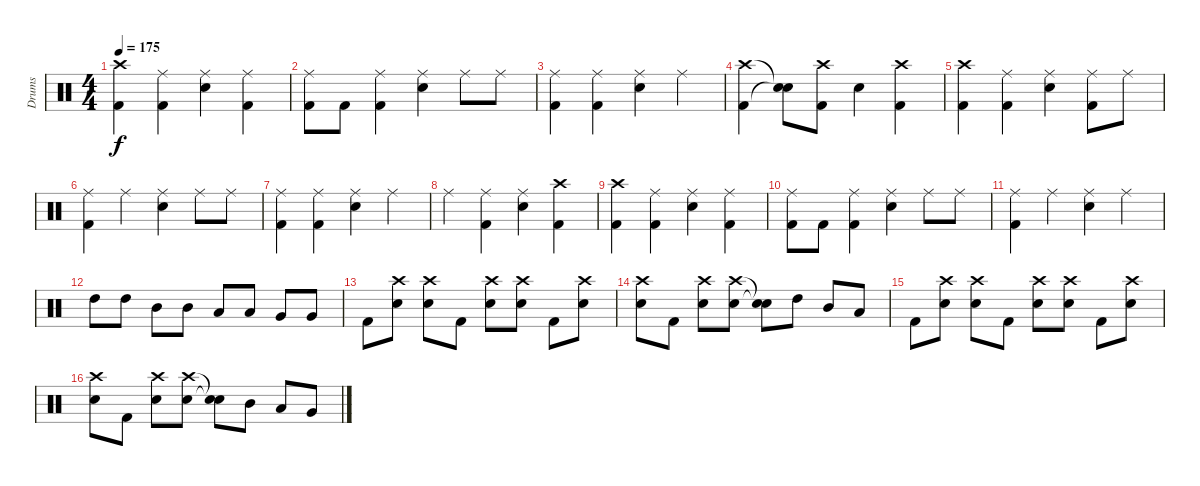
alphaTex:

\track ("Drums" "Drums") {mute instrument percussion}
\staff {score}
\articulation defaults
\ts (4 4)
\tempo 175
\clef neutral
\ks c
("Crash high (hit)" "Kick (hit) 2").4{dy f} ("Ride (middle)" "Kick (hit) 2").4 ("Ride (middle)" "Electric Snare (hit)").4 ("Ride (middle)" "Kick (hit) 2").4 |
("Ride (middle)" "Kick (hit) 2").8 "Kick (hit) 2".8 ("Ride (middle)" "Kick (hit) 2").4 ("Ride (middle)" "Electric Snare (hit)").4 "Ride (middle)".8 "Ride (middle)".8 |
("Ride (middle)" "Kick (hit) 2").4 ("Ride (middle)" "Kick (hit) 2").4 ("Ride (middle)" "Electric Snare (hit)").4 "Ride (middle)".4 |
("Crash high (hit)" "Kick (hit) 2").4 ("Snare (hit)"{t} "Snare (hit)"{t}).8 ("Crash high (hit)" "Kick (hit) 2").8 "Electric Snare (hit)".4 ("Crash high (hit)" "Kick (hit) 2").4 |
("Crash high (hit)" "Kick (hit) 2").4 ("Ride (middle)" "Kick (hit) 2").4 ("Ride (middle)" "Electric Snare (hit)").4 ("Ride (middle)" "Kick (hit) 2").8 "Ride (middle)".8 |
("Ride (middle)" "Kick (hit) 2").4 "Ride (middle)".4 ("Ride (middle)" "Electric Snare (hit)").4 "Ride (middle)".8 "Ride (middle)".8 |
("Ride (middle)" "Kick (hit) 2").4 ("Ride (middle)" "Kick (hit) 2").4 ("Ride (middle)" "Electric Snare (hit)").4 "Ride (middle)".4 |
"Ride (middle)".4 ("Ride (middle)" "Kick (hit) 2").4 ("Ride (middle)" "Electric Snare (hit)").4 ("Crash high (hit)" "Kick (hit) 2").4 |
("Crash high (hit)" "Kick (hit) 2").4 ("Ride (middle)" "Kick (hit) 2").4 ("Ride (middle)" "Electric Snare (hit)").4 ("Ride (middle)" "Kick (hit) 2").4 |
("Ride (middle)" "Kick (hit) 2").8 "Kick (hit) 2".8 ("Ride (middle)" "Kick (hit) 2").4 ("Ride (middle)" "Electric Snare (hit)").4 "Ride (middle)".8 "Ride (middle)".8 |
("Ride (middle)" "Kick (hit) 2").4 "Ride (middle)".4 ("Ride (middle)" "Electric Snare (hit)").4 "Ride (middle)".4 |
"High Tom (hit)".8 "High Tom (hit)".8 "Mid Tom (hit)".8 "Mid Tom (hit)".8 "Low Tom (hit)".8 "Low Tom (hit)".8 "Very Low Tom (hit)".8 "Very Low Tom (hit)".8 |
"Kick (hit) 2".8 ("Crash high (hit)" "Electric Snare (hit)").8 ("Crash high (hit)" "Electric Snare (hit)").8 "Kick (hit) 2".8 ("Crash high (hit)" "Electric Snare (hit)").8 ("Crash high (hit)" "Electric Snare (hit)").8 "Kick (hit) 2".8 ("Crash high (hit)" "Electric Snare (hit)").8 |
("Crash high (hit)" "Electric Snare (hit)").8 "Kick (hit) 2".8 ("Crash high (hit)" "Electric Snare (hit)").8 ("Crash high (hit)" "Electric Snare (hit)").8 ("Snare (hit)"{t} "Snare (hit)"{t}).8 "High Tom (hit)".8 "Mid Tom (hit)".8 "Low Tom (hit)".8 |
"Kick (hit) 2".8 ("Crash high (hit)" "Electric Snare (hit)").8 ("Crash high (hit)" "Electric Snare (hit)").8 "Kick (hit) 2".8 ("Crash high (hit)" "Electric Snare (hit)").8 ("Crash high (hit)" "Electric Snare (hit)").8 "Kick (hit) 2".8 ("Crash high (hit)" "Electric Snare (hit)").8 |
("Crash high (hit)" "Electric Snare (hit)").8 "Kick (hit) 2".8 ("Crash high (hit)" "Electric Snare (hit)").8 ("Crash high (hit)" "Electric Snare (hit)").8 ("Snare (hit)"{t} "Snare (hit)"{t}).8 "Mid Tom (hit)".8 "Low Tom (hit)".8 "Very Low Tom (hit)".8
